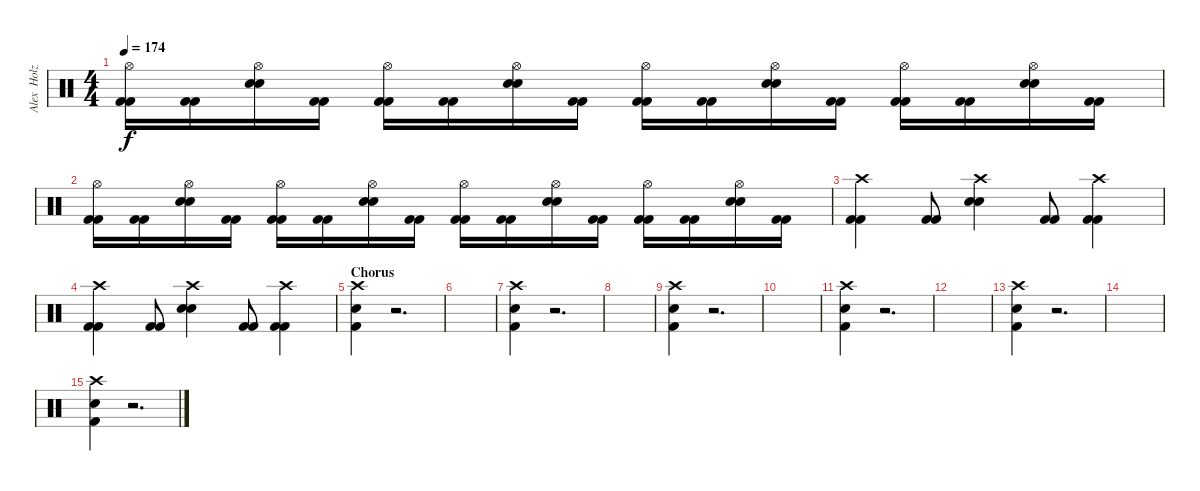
\track ("Alex  Holzwarth (Drums)" "Alex  Holz") {instrument percussion}
\staff {score}
\articulation defaults
\ts (4 4)
\tempo 174
\clef neutral
\ks c
("Hi-Hat (open)" "Kick (hit) 2" "Kick (hit) 2").16{dy f} ("Kick (hit) 2" "Kick (hit) 2").16 ("Hi-Hat (open)" "Snare (hit) 2" "Snare (hit) 2").16 ("Kick (hit) 2" "Kick (hit) 2").16 ("Hi-Hat (open)" "Kick (hit) 2" "Kick (hit) 2").16 ("Kick (hit) 2" "Kick (hit) 2").16 ("Hi-Hat (open)" "Snare (hit) 2" "Snare (hit) 2").16 ("Kick (hit) 2" "Kick (hit) 2").16 ("Hi-Hat (open)" "Kick (hit) 2" "Kick (hit) 2").16 ("Kick (hit) 2" "Kick (hit) 2").16 ("Hi-Hat (open)" "Snare (hit) 2" "Snare (hit) 2").16 ("Kick (hit) 2" "Kick (hit) 2").16 ("Hi-Hat (open)" "Kick (hit) 2" "Kick (hit) 2").16 ("Kick (hit) 2" "Kick (hit) 2").16 ("Hi-Hat (open)" "Snare (hit) 2" "Snare (hit) 2").16 ("Kick (hit) 2" "Kick (hit) 2").16 |
("Hi-Hat (open)" "Kick (hit) 2" "Kick (hit) 2").16 ("Kick (hit) 2" "Kick (hit) 2").16 ("Hi-Hat (open)" "Snare (hit) 2" "Snare (hit) 2").16 ("Kick (hit) 2" "Kick (hit) 2").16 ("Hi-Hat (open)" "Kick (hit) 2" "Kick (hit) 2").16 ("Kick (hit) 2" "Kick (hit) 2").16 ("Hi-Hat (open)" "Snare (hit) 2" "Snare (hit) 2").16 ("Kick (hit) 2" "Kick (hit) 2").16 ("Hi-Hat (open)" "Kick (hit) 2" "Kick (hit) 2").16 ("Kick (hit) 2" "Kick (hit) 2").16 ("Hi-Hat (open)" "Snare (hit) 2" "Snare (hit) 2").16 ("Kick (hit) 2" "Kick (hit) 2").16 ("Hi-Hat (open)" "Kick (hit) 2" "Kick (hit) 2").16 ("Kick (hit) 2" "Kick (hit) 2").16 ("Hi-Hat (open)" "Snare (hit) 2" "Snare (hit) 2").16 ("Kick (hit) 2" "Kick (hit) 2").16 |
("Crash high (hit)" "Kick (hit) 2" "Kick (hit) 2").4 ("Kick (hit) 2" "Kick (hit) 2").8 ("Crash high (hit)" "Snare (hit) 2" "Snare (hit) 2").4 ("Kick (hit) 2" "Kick (hit) 2").8 ("Crash high (hit)" "Kick (hit) 2" "Kick (hit) 2").4 |
("Crash high (hit)" "Kick (hit) 2" "Kick (hit) 2").4 ("Kick (hit) 2" "Kick (hit) 2").8 ("Crash high (hit)" "Snare (hit) 2" "Snare (hit) 2").4 ("Kick (hit) 2" "Kick (hit) 2").8 ("Crash high (hit)" "Kick (hit) 2" "Kick (hit) 2").4 |
\section ("" "Chorus")
("Crash high (hit)" "Snare (hit) 2" "Kick (hit) 2").4 r.2{d} |
|
("Crash high (hit)" "Snare (hit) 2" "Kick (hit) 2").4 r.2{d} |
|
("Crash high (hit)" "Snare (hit) 2" "Kick (hit) 2").4 r.2{d} |
|
("Crash high (hit)" "Snare (hit) 2" "Kick (hit) 2").4 r.2{d} |
|
("Crash high (hit)" "Snare (hit) 2" "Kick (hit) 2").4 r.2{d} |
|
("Crash high (hit)" "Snare (hit) 2" "Kick (hit) 2").4 r.2{d}
